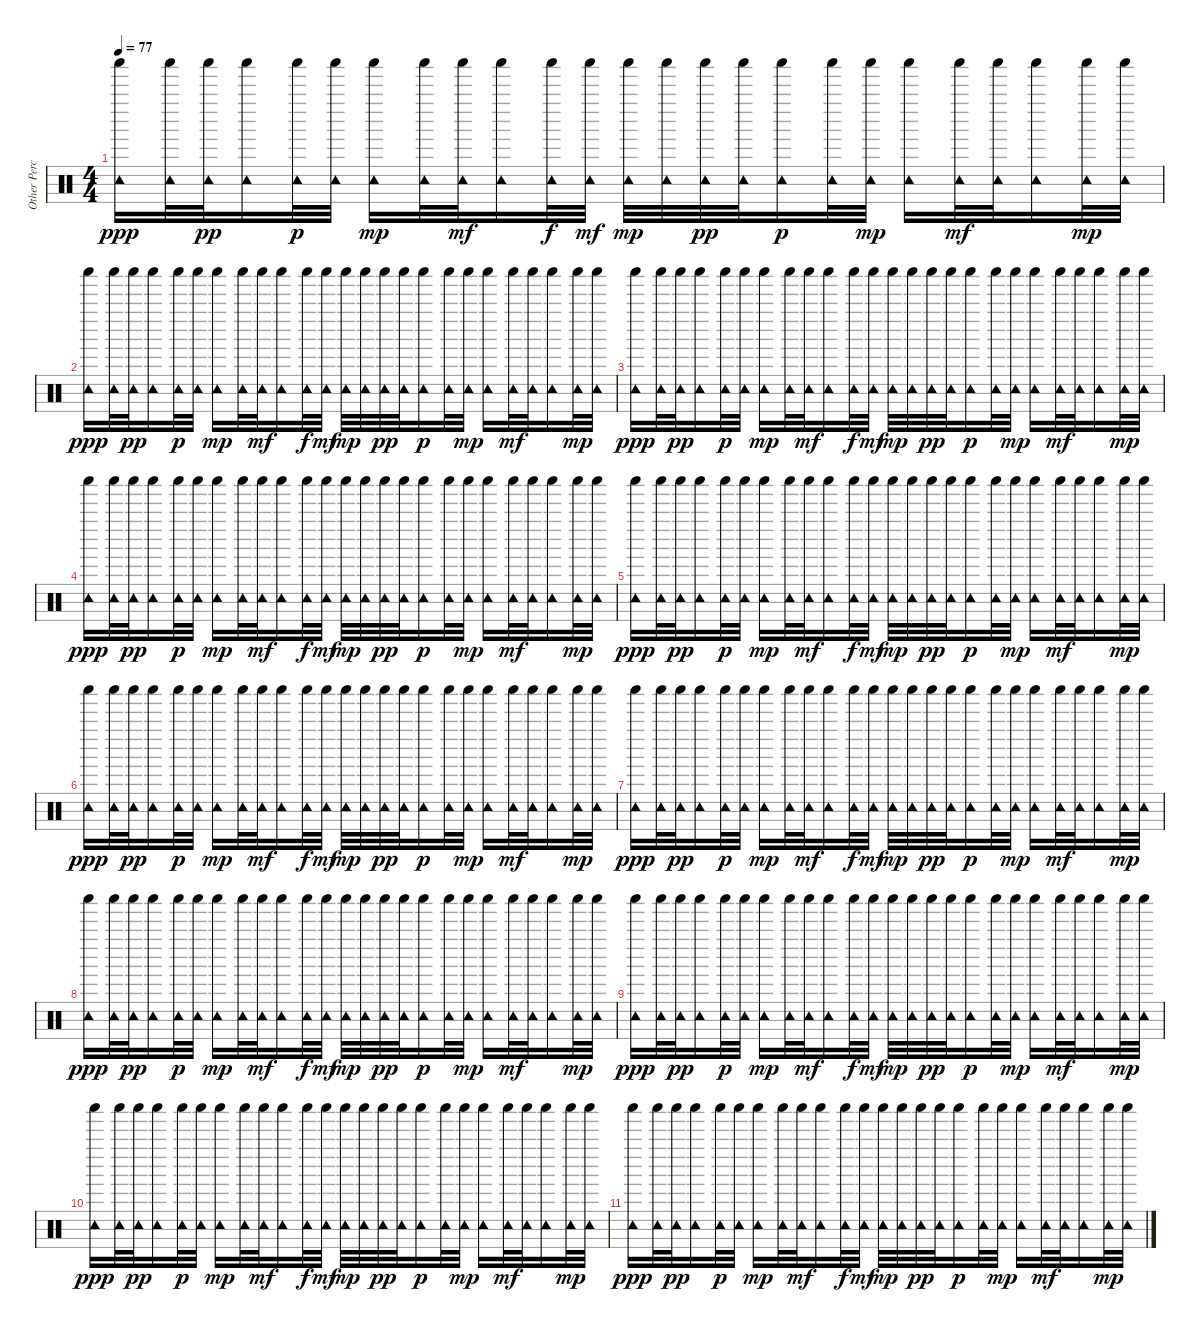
\track ("Other Percussion" "Other Perc") {instrument percussion}
\staff {score}
\articulation defaults
\ts (4 4)
\tempo 77
\clef neutral
\ks c
("Shaker (hit)" "Tambourine (hit)").16{dy ppp} ("Shaker (hit)" "Tambourine (hit)").32 ("Shaker (hit)" "Tambourine (hit)").32{dy pp} ("Shaker (hit)" "Tambourine (hit)").16 ("Shaker (hit)" "Tambourine (hit)").32{dy p} ("Shaker (hit)" "Tambourine (hit)").32 ("Shaker (hit)" "Tambourine (hit)").16{dy mp} ("Shaker (hit)" "Tambourine (hit)").32 ("Shaker (hit)" "Tambourine (hit)").32{dy mf} ("Shaker (hit)" "Tambourine (hit)").16 ("Shaker (hit)" "Tambourine (hit)").32{dy f} ("Shaker (hit)" "Tambourine (hit)").32{dy mf} ("Shaker (hit)" "Tambourine (hit)").32{dy mp} ("Shaker (hit)" "Tambourine (hit)").32 ("Shaker (hit)" "Tambourine (hit)").32{dy pp} ("Shaker (hit)" "Tambourine (hit)").32 ("Shaker (hit)" "Tambourine (hit)").16{dy p} ("Shaker (hit)" "Tambourine (hit)").32 ("Shaker (hit)" "Tambourine (hit)").32{dy mp} ("Shaker (hit)" "Tambourine (hit)").16 ("Shaker (hit)" "Tambourine (hit)").32{dy mf} ("Shaker (hit)" "Tambourine (hit)").32 ("Shaker (hit)" "Tambourine (hit)").16 ("Shaker (hit)" "Tambourine (hit)").32{dy mp} ("Shaker (hit)" "Tambourine (hit)").32 |
("Shaker (hit)" "Tambourine (hit)").16{dy ppp} ("Shaker (hit)" "Tambourine (hit)").32 ("Shaker (hit)" "Tambourine (hit)").32{dy pp} ("Shaker (hit)" "Tambourine (hit)").16 ("Shaker (hit)" "Tambourine (hit)").32{dy p} ("Shaker (hit)" "Tambourine (hit)").32 ("Shaker (hit)" "Tambourine (hit)").16{dy mp} ("Shaker (hit)" "Tambourine (hit)").32 ("Shaker (hit)" "Tambourine (hit)").32{dy mf} ("Shaker (hit)" "Tambourine (hit)").16 ("Shaker (hit)" "Tambourine (hit)").32{dy f} ("Shaker (hit)" "Tambourine (hit)").32{dy mf} ("Shaker (hit)" "Tambourine (hit)").32{dy mp} ("Shaker (hit)" "Tambourine (hit)").32 ("Shaker (hit)" "Tambourine (hit)").32{dy pp} ("Shaker (hit)" "Tambourine (hit)").32 ("Shaker (hit)" "Tambourine (hit)").16{dy p} ("Shaker (hit)" "Tambourine (hit)").32 ("Shaker (hit)" "Tambourine (hit)").32{dy mp} ("Shaker (hit)" "Tambourine (hit)").16 ("Shaker (hit)" "Tambourine (hit)").32{dy mf} ("Shaker (hit)" "Tambourine (hit)").32 ("Shaker (hit)" "Tambourine (hit)").16 ("Shaker (hit)" "Tambourine (hit)").32{dy mp} ("Shaker (hit)" "Tambourine (hit)").32 |
("Shaker (hit)" "Tambourine (hit)").16{dy ppp} ("Shaker (hit)" "Tambourine (hit)").32 ("Shaker (hit)" "Tambourine (hit)").32{dy pp} ("Shaker (hit)" "Tambourine (hit)").16 ("Shaker (hit)" "Tambourine (hit)").32{dy p} ("Shaker (hit)" "Tambourine (hit)").32 ("Shaker (hit)" "Tambourine (hit)").16{dy mp} ("Shaker (hit)" "Tambourine (hit)").32 ("Shaker (hit)" "Tambourine (hit)").32{dy mf} ("Shaker (hit)" "Tambourine (hit)").16 ("Shaker (hit)" "Tambourine (hit)").32{dy f} ("Shaker (hit)" "Tambourine (hit)").32{dy mf} ("Shaker (hit)" "Tambourine (hit)").32{dy mp} ("Shaker (hit)" "Tambourine (hit)").32 ("Shaker (hit)" "Tambourine (hit)").32{dy pp} ("Shaker (hit)" "Tambourine (hit)").32 ("Shaker (hit)" "Tambourine (hit)").16{dy p} ("Shaker (hit)" "Tambourine (hit)").32 ("Shaker (hit)" "Tambourine (hit)").32{dy mp} ("Shaker (hit)" "Tambourine (hit)").16 ("Shaker (hit)" "Tambourine (hit)").32{dy mf} ("Shaker (hit)" "Tambourine (hit)").32 ("Shaker (hit)" "Tambourine (hit)").16 ("Shaker (hit)" "Tambourine (hit)").32{dy mp} ("Shaker (hit)" "Tambourine (hit)").32 |
("Shaker (hit)" "Tambourine (hit)").16{dy ppp} ("Shaker (hit)" "Tambourine (hit)").32 ("Shaker (hit)" "Tambourine (hit)").32{dy pp} ("Shaker (hit)" "Tambourine (hit)").16 ("Shaker (hit)" "Tambourine (hit)").32{dy p} ("Shaker (hit)" "Tambourine (hit)").32 ("Shaker (hit)" "Tambourine (hit)").16{dy mp} ("Shaker (hit)" "Tambourine (hit)").32 ("Shaker (hit)" "Tambourine (hit)").32{dy mf} ("Shaker (hit)" "Tambourine (hit)").16 ("Shaker (hit)" "Tambourine (hit)").32{dy f} ("Shaker (hit)" "Tambourine (hit)").32{dy mf} ("Shaker (hit)" "Tambourine (hit)").32{dy mp} ("Shaker (hit)" "Tambourine (hit)").32 ("Shaker (hit)" "Tambourine (hit)").32{dy pp} ("Shaker (hit)" "Tambourine (hit)").32 ("Shaker (hit)" "Tambourine (hit)").16{dy p} ("Shaker (hit)" "Tambourine (hit)").32 ("Shaker (hit)" "Tambourine (hit)").32{dy mp} ("Shaker (hit)" "Tambourine (hit)").16 ("Shaker (hit)" "Tambourine (hit)").32{dy mf} ("Shaker (hit)" "Tambourine (hit)").32 ("Shaker (hit)" "Tambourine (hit)").16 ("Shaker (hit)" "Tambourine (hit)").32{dy mp} ("Shaker (hit)" "Tambourine (hit)").32 |
("Shaker (hit)" "Tambourine (hit)").16{dy ppp} ("Shaker (hit)" "Tambourine (hit)").32 ("Shaker (hit)" "Tambourine (hit)").32{dy pp} ("Shaker (hit)" "Tambourine (hit)").16 ("Shaker (hit)" "Tambourine (hit)").32{dy p} ("Shaker (hit)" "Tambourine (hit)").32 ("Shaker (hit)" "Tambourine (hit)").16{dy mp} ("Shaker (hit)" "Tambourine (hit)").32 ("Shaker (hit)" "Tambourine (hit)").32{dy mf} ("Shaker (hit)" "Tambourine (hit)").16 ("Shaker (hit)" "Tambourine (hit)").32{dy f} ("Shaker (hit)" "Tambourine (hit)").32{dy mf} ("Shaker (hit)" "Tambourine (hit)").32{dy mp} ("Shaker (hit)" "Tambourine (hit)").32 ("Shaker (hit)" "Tambourine (hit)").32{dy pp} ("Shaker (hit)" "Tambourine (hit)").32 ("Shaker (hit)" "Tambourine (hit)").16{dy p} ("Shaker (hit)" "Tambourine (hit)").32 ("Shaker (hit)" "Tambourine (hit)").32{dy mp} ("Shaker (hit)" "Tambourine (hit)").16 ("Shaker (hit)" "Tambourine (hit)").32{dy mf} ("Shaker (hit)" "Tambourine (hit)").32 ("Shaker (hit)" "Tambourine (hit)").16 ("Shaker (hit)" "Tambourine (hit)").32{dy mp} ("Shaker (hit)" "Tambourine (hit)").32 |
("Shaker (hit)" "Tambourine (hit)").16{dy ppp} ("Shaker (hit)" "Tambourine (hit)").32 ("Shaker (hit)" "Tambourine (hit)").32{dy pp} ("Shaker (hit)" "Tambourine (hit)").16 ("Shaker (hit)" "Tambourine (hit)").32{dy p} ("Shaker (hit)" "Tambourine (hit)").32 ("Shaker (hit)" "Tambourine (hit)").16{dy mp} ("Shaker (hit)" "Tambourine (hit)").32 ("Shaker (hit)" "Tambourine (hit)").32{dy mf} ("Shaker (hit)" "Tambourine (hit)").16 ("Shaker (hit)" "Tambourine (hit)").32{dy f} ("Shaker (hit)" "Tambourine (hit)").32{dy mf} ("Shaker (hit)" "Tambourine (hit)").32{dy mp} ("Shaker (hit)" "Tambourine (hit)").32 ("Shaker (hit)" "Tambourine (hit)").32{dy pp} ("Shaker (hit)" "Tambourine (hit)").32 ("Shaker (hit)" "Tambourine (hit)").16{dy p} ("Shaker (hit)" "Tambourine (hit)").32 ("Shaker (hit)" "Tambourine (hit)").32{dy mp} ("Shaker (hit)" "Tambourine (hit)").16 ("Shaker (hit)" "Tambourine (hit)").32{dy mf} ("Shaker (hit)" "Tambourine (hit)").32 ("Shaker (hit)" "Tambourine (hit)").16 ("Shaker (hit)" "Tambourine (hit)").32{dy mp} ("Shaker (hit)" "Tambourine (hit)").32 |
("Shaker (hit)" "Tambourine (hit)").16{dy ppp} ("Shaker (hit)" "Tambourine (hit)").32 ("Shaker (hit)" "Tambourine (hit)").32{dy pp} ("Shaker (hit)" "Tambourine (hit)").16 ("Shaker (hit)" "Tambourine (hit)").32{dy p} ("Shaker (hit)" "Tambourine (hit)").32 ("Shaker (hit)" "Tambourine (hit)").16{dy mp} ("Shaker (hit)" "Tambourine (hit)").32 ("Shaker (hit)" "Tambourine (hit)").32{dy mf} ("Shaker (hit)" "Tambourine (hit)").16 ("Shaker (hit)" "Tambourine (hit)").32{dy f} ("Shaker (hit)" "Tambourine (hit)").32{dy mf} ("Shaker (hit)" "Tambourine (hit)").32{dy mp} ("Shaker (hit)" "Tambourine (hit)").32 ("Shaker (hit)" "Tambourine (hit)").32{dy pp} ("Shaker (hit)" "Tambourine (hit)").32 ("Shaker (hit)" "Tambourine (hit)").16{dy p} ("Shaker (hit)" "Tambourine (hit)").32 ("Shaker (hit)" "Tambourine (hit)").32{dy mp} ("Shaker (hit)" "Tambourine (hit)").16 ("Shaker (hit)" "Tambourine (hit)").32{dy mf} ("Shaker (hit)" "Tambourine (hit)").32 ("Shaker (hit)" "Tambourine (hit)").16 ("Shaker (hit)" "Tambourine (hit)").32{dy mp} ("Shaker (hit)" "Tambourine (hit)").32 |
("Shaker (hit)" "Tambourine (hit)").16{dy ppp} ("Shaker (hit)" "Tambourine (hit)").32 ("Shaker (hit)" "Tambourine (hit)").32{dy pp} ("Shaker (hit)" "Tambourine (hit)").16 ("Shaker (hit)" "Tambourine (hit)").32{dy p} ("Shaker (hit)" "Tambourine (hit)").32 ("Shaker (hit)" "Tambourine (hit)").16{dy mp} ("Shaker (hit)" "Tambourine (hit)").32 ("Shaker (hit)" "Tambourine (hit)").32{dy mf} ("Shaker (hit)" "Tambourine (hit)").16 ("Shaker (hit)" "Tambourine (hit)").32{dy f} ("Shaker (hit)" "Tambourine (hit)").32{dy mf} ("Shaker (hit)" "Tambourine (hit)").32{dy mp} ("Shaker (hit)" "Tambourine (hit)").32 ("Shaker (hit)" "Tambourine (hit)").32{dy pp} ("Shaker (hit)" "Tambourine (hit)").32 ("Shaker (hit)" "Tambourine (hit)").16{dy p} ("Shaker (hit)" "Tambourine (hit)").32 ("Shaker (hit)" "Tambourine (hit)").32{dy mp} ("Shaker (hit)" "Tambourine (hit)").16 ("Shaker (hit)" "Tambourine (hit)").32{dy mf} ("Shaker (hit)" "Tambourine (hit)").32 ("Shaker (hit)" "Tambourine (hit)").16 ("Shaker (hit)" "Tambourine (hit)").32{dy mp} ("Shaker (hit)" "Tambourine (hit)").32 |
("Shaker (hit)" "Tambourine (hit)").16{dy ppp} ("Shaker (hit)" "Tambourine (hit)").32 ("Shaker (hit)" "Tambourine (hit)").32{dy pp} ("Shaker (hit)" "Tambourine (hit)").16 ("Shaker (hit)" "Tambourine (hit)").32{dy p} ("Shaker (hit)" "Tambourine (hit)").32 ("Shaker (hit)" "Tambourine (hit)").16{dy mp} ("Shaker (hit)" "Tambourine (hit)").32 ("Shaker (hit)" "Tambourine (hit)").32{dy mf} ("Shaker (hit)" "Tambourine (hit)").16 ("Shaker (hit)" "Tambourine (hit)").32{dy f} ("Shaker (hit)" "Tambourine (hit)").32{dy mf} ("Shaker (hit)" "Tambourine (hit)").32{dy mp} ("Shaker (hit)" "Tambourine (hit)").32 ("Shaker (hit)" "Tambourine (hit)").32{dy pp} ("Shaker (hit)" "Tambourine (hit)").32 ("Shaker (hit)" "Tambourine (hit)").16{dy p} ("Shaker (hit)" "Tambourine (hit)").32 ("Shaker (hit)" "Tambourine (hit)").32{dy mp} ("Shaker (hit)" "Tambourine (hit)").16 ("Shaker (hit)" "Tambourine (hit)").32{dy mf} ("Shaker (hit)" "Tambourine (hit)").32 ("Shaker (hit)" "Tambourine (hit)").16 ("Shaker (hit)" "Tambourine (hit)").32{dy mp} ("Shaker (hit)" "Tambourine (hit)").32 |
("Shaker (hit)" "Tambourine (hit)").16{dy ppp} ("Shaker (hit)" "Tambourine (hit)").32 ("Shaker (hit)" "Tambourine (hit)").32{dy pp} ("Shaker (hit)" "Tambourine (hit)").16 ("Shaker (hit)" "Tambourine (hit)").32{dy p} ("Shaker (hit)" "Tambourine (hit)").32 ("Shaker (hit)" "Tambourine (hit)").16{dy mp} ("Shaker (hit)" "Tambourine (hit)").32 ("Shaker (hit)" "Tambourine (hit)").32{dy mf} ("Shaker (hit)" "Tambourine (hit)").16 ("Shaker (hit)" "Tambourine (hit)").32{dy f} ("Shaker (hit)" "Tambourine (hit)").32{dy mf} ("Shaker (hit)" "Tambourine (hit)").32{dy mp} ("Shaker (hit)" "Tambourine (hit)").32 ("Shaker (hit)" "Tambourine (hit)").32{dy pp} ("Shaker (hit)" "Tambourine (hit)").32 ("Shaker (hit)" "Tambourine (hit)").16{dy p} ("Shaker (hit)" "Tambourine (hit)").32 ("Shaker (hit)" "Tambourine (hit)").32{dy mp} ("Shaker (hit)" "Tambourine (hit)").16 ("Shaker (hit)" "Tambourine (hit)").32{dy mf} ("Shaker (hit)" "Tambourine (hit)").32 ("Shaker (hit)" "Tambourine (hit)").16 ("Shaker (hit)" "Tambourine (hit)").32{dy mp} ("Shaker (hit)" "Tambourine (hit)").32 |
("Shaker (hit)" "Tambourine (hit)").16{dy ppp} ("Shaker (hit)" "Tambourine (hit)").32 ("Shaker (hit)" "Tambourine (hit)").32{dy pp} ("Shaker (hit)" "Tambourine (hit)").16 ("Shaker (hit)" "Tambourine (hit)").32{dy p} ("Shaker (hit)" "Tambourine (hit)").32 ("Shaker (hit)" "Tambourine (hit)").16{dy mp} ("Shaker (hit)" "Tambourine (hit)").32 ("Shaker (hit)" "Tambourine (hit)").32{dy mf} ("Shaker (hit)" "Tambourine (hit)").16 ("Shaker (hit)" "Tambourine (hit)").32{dy f} ("Shaker (hit)" "Tambourine (hit)").32{dy mf} ("Shaker (hit)" "Tambourine (hit)").32{dy mp} ("Shaker (hit)" "Tambourine (hit)").32 ("Shaker (hit)" "Tambourine (hit)").32{dy pp} ("Shaker (hit)" "Tambourine (hit)").32 ("Shaker (hit)" "Tambourine (hit)").16{dy p} ("Shaker (hit)" "Tambourine (hit)").32 ("Shaker (hit)" "Tambourine (hit)").32{dy mp} ("Shaker (hit)" "Tambourine (hit)").16 ("Shaker (hit)" "Tambourine (hit)").32{dy mf} ("Shaker (hit)" "Tambourine (hit)").32 ("Shaker (hit)" "Tambourine (hit)").16 ("Shaker (hit)" "Tambourine (hit)").32{dy mp} ("Shaker (hit)" "Tambourine (hit)").32
